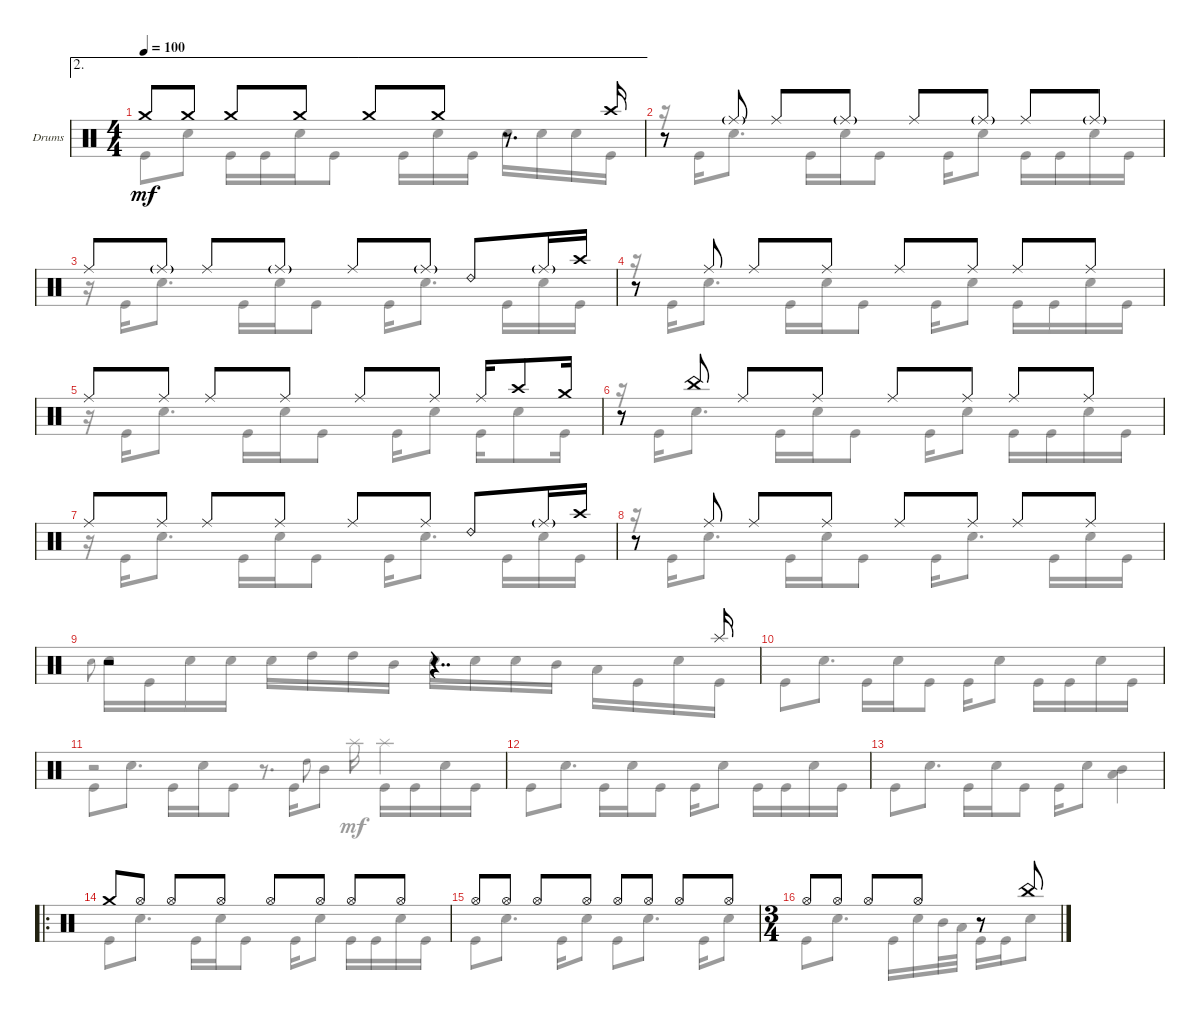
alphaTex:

\defaultSystemsLayout 4
\bracketExtendMode groupsimilarinstruments
\firstSystemTrackNameOrientation horizontal
\otherSystemsTrackNameOrientation horizontal
\track ("Drumkit" "Drums") {instrument percussion}
\staff {score}
\articulation defaults
\voice
\ae 2
\ts (4 4)
\tempo 100
\clef neutral
\ks c "Crash medium (hit)".8{dy mf} "Crash medium (hit)".8 "Crash medium (hit)".8 "Crash medium (hit)".8 "Crash medium (hit)".8 "Crash medium (hit)".8
r.8{d} "Crash high (hit)".16 |
r.8 "Ride (middle)"{g}.8 "Ride (middle)".8 "Ride (middle)"{g}.8 "Ride (middle)".8 "Ride (middle)"{g}.8 "Ride (middle)".8 "Ride (middle)"{g}.8 |
"Ride (middle)".8 "Ride (middle)"{g}.8 "Ride (middle)".8 "Ride (middle)"{g}.8 "Ride (middle)".8 "Ride (middle)"{g}.8 "Ride (bell) 2".8 "Ride (middle)"{g}.16 "Crash high (hit)".16 |
r.8 "Ride (middle)".8 "Ride (middle)".8 "Ride (middle)".8 "Ride (middle)".8 "Ride (middle)".8 "Ride (middle)".8 "Ride (middle)".8 |
"Ride (middle)".8 "Ride (middle)".8 "Ride (middle)".8 "Ride (middle)".8 "Ride (middle)".8 "Ride (middle)".8 "Ride (middle)".16 "Crash high (hit)".8 "Crash medium (hit)".16 |
r.8 "China (hit)".8 "Ride (middle)".8 "Ride (middle)".8 "Ride (middle)".8 "Ride (middle)".8 "Ride (middle)".8 "Ride (middle)".8 |
"Ride (middle)".8 "Ride (middle)".8 "Ride (middle)".8 "Ride (middle)".8 "Ride (middle)".8 "Ride (middle)".8 "Ride (bell) 2".8 "Ride (middle)"{g}.16 "Crash high (hit)".16 |
r.8 "Ride (middle)".8 "Ride (middle)".8 "Ride (middle)".8 "Ride (middle)".8 "Ride (middle)".8 "Ride (middle)".8 "Ride (middle)".8 |
r.2 r.4{dd} "Splash (hit)".16 |
|
|
|
|
\ro "Crash medium (hit)".8 "Hi-Hat (open)".8 "Hi-Hat (open)".8 "Hi-Hat (open)".8 "Hi-Hat (open)".8 "Hi-Hat (open)".8 "Hi-Hat (open)".8 "Hi-Hat (open)".8
|
"Hi-Hat (open)".8 "Hi-Hat (open)".8 "Hi-Hat (open)".8 "Hi-Hat (open)".8 "Hi-Hat (open)".8 "Hi-Hat (open)".8 "Hi-Hat (open)".8 "Hi-Hat (open)".8 |
\ts (3 4)
"Hi-Hat (open)".8 "Hi-Hat (open)".8 "Hi-Hat (open)".8 "Hi-Hat (open)".8 r.8 "China (hit)".8
\voice
\clef neutral
\ottava regular
\simile none
\ks c "Kick (hit)".8{dy mf} "Snare (hit) 2".8 "Kick (hit)".16 "Kick (hit)".16 "Snare (hit) 2".16 "Kick (hit)".8 "Kick (hit)".16 "Snare (hit) 2".16 "Kick (hit)".16 "Snare (hit) 2".16 "Snare (hit) 2".16 "Snare (hit) 2".16 "Kick (hit)".16
|
r.16 "Kick (hit)".16 "Snare (hit) 2".8{d} "Kick (hit)".16 "Snare (hit) 2".16 "Kick (hit)".8 "Kick (hit)".16 "Snare (hit) 2".8 "Kick (hit)".16 "Kick (hit)".16 "Snare (hit) 2".16 "Kick (hit)".16 |
r.16 "Kick (hit)".16 "Snare (hit) 2".8{d} "Kick (hit)".16 "Snare (hit) 2".16 "Kick (hit)".8 "Kick (hit)".16 "Snare (hit) 2".8{d} "Kick (hit)".16 "Snare (hit) 2".16 "Kick (hit)".16 |
r.16 "Kick (hit)".16 "Snare (hit) 2".8{d} "Kick (hit)".16 "Snare (hit) 2".16 "Kick (hit)".8 "Kick (hit)".16 "Snare (hit) 2".8 "Kick (hit)".16 "Kick (hit)".16 "Snare (hit) 2".16 "Kick (hit)".16 |
r.16 "Kick (hit)".16 "Snare (hit) 2".8{d} "Kick (hit)".16 "Snare (hit) 2".16 "Kick (hit)".8 "Kick (hit)".16 "Snare (hit) 2".8 "Kick (hit)".16 "Snare (hit) 2".8 "Kick (hit)".16 |
r.16 "Kick (hit)".16 "Snare (hit) 2".8{d} "Kick (hit)".16 "Snare (hit) 2".16 "Kick (hit)".8 "Kick (hit)".16 "Snare (hit) 2".8 "Kick (hit)".16 "Kick (hit)".16 "Snare (hit) 2".16 "Kick (hit)".16 |
r.16 "Kick (hit)".16 "Snare (hit) 2".8{d} "Kick (hit)".16 "Snare (hit) 2".16 "Kick (hit)".8 "Kick (hit)".16 "Snare (hit) 2".8{d} "Kick (hit)".16 "Snare (hit) 2".16 "Kick (hit)".16 |
r.16 "Kick (hit)".16 "Snare (hit) 2".8{d} "Kick (hit)".16 "Snare (hit) 2".16 "Kick (hit)".8 "Kick (hit)".16 "Snare (hit) 2".8{d} "Kick (hit)".16 "Snare (hit) 2".16 "Kick (hit)".16 |
"Snare (hit) 2".8{gr onbeat} "Snare (hit) 2".16 "Kick (hit)".16 "Snare (hit) 2".16 "Snare (hit) 2".16 "Snare (hit) 2".16 "High Tom (hit)".16 "High Tom (hit)".16 "Mid Tom (hit)".16 "Snare (hit) 2".16 "Snare (hit) 2".16 "Snare (hit) 2".16 "Mid Tom (hit)".16 "Low Tom (hit)".16 "Kick (hit)".16 "Snare (hit) 2".16 "Kick (hit)".16 |
"Kick (hit)".8 "Snare (hit) 2".8{d} "Kick (hit)".16 "Snare (hit) 2".16 "Kick (hit)".8 "Kick (hit)".16 "Snare (hit) 2".8 "Kick (hit)".16 "Kick (hit)".16 "Snare (hit) 2".16 "Kick (hit)".16 |
"Kick (hit)".8 "Snare (hit) 2".8{d} "Kick (hit)".16 "Snare (hit) 2".16 "Kick (hit)".8 "Kick (hit)".16 "High Tom (hit)".8{gr onbeat} "Mid Tom (hit)".8 "Kick (hit)".16 "Kick (hit)".16 "Snare (hit) 2".16 "Kick (hit)".16 |
"Kick (hit)".8 "Snare (hit) 2".8{d} "Kick (hit)".16 "Snare (hit) 2".16 "Kick (hit)".8 "Kick (hit)".16 "Snare (hit) 2".8 "Kick (hit)".16 "Kick (hit)".16 "Snare (hit) 2".16 "Kick (hit)".16 |
"Kick (hit)".8 "Snare (hit) 2".8{d} "Kick (hit)".16 "Snare (hit) 2".16 "Kick (hit)".8 "Kick (hit)".16 "Snare (hit) 2".8 ("Low Tom (hit)" "Mid Tom (hit)").4 |
"Kick (hit)".8 "Snare (hit) 2".8{d} "Kick (hit)".16 "Snare (hit) 2".16 "Kick (hit)".8 "Kick (hit)".16 "Snare (hit) 2".8 "Kick (hit)".16 "Kick (hit)".16 "Snare (hit) 2".16 "Kick (hit)".16 |
"Kick (hit)".8 "Snare (hit) 2".8{d} "Kick (hit)".16 "Snare (hit) 2".8 "Kick (hit)".8 "Snare (hit) 2".8{d} "Kick (hit)".16 "Snare (hit) 2".8 |
"Kick (hit)".8 "Snare (hit) 2".8{d} "Kick (hit)".16 "Snare (hit) 2".16 "Mid Tom (hit)".32 "Low Tom (hit)".32 "Kick (hit)".16 "Kick (hit)".16 "Snare (hit) 2".8
\voice
\clef neutral
\ottava regular
\simile none
\ks c
|
|
|
|
|
|
|
|
|
|
r.2 r.8{d} "Splash (hit)".16 "Splash (hit)".4 |
|
|
|
|
